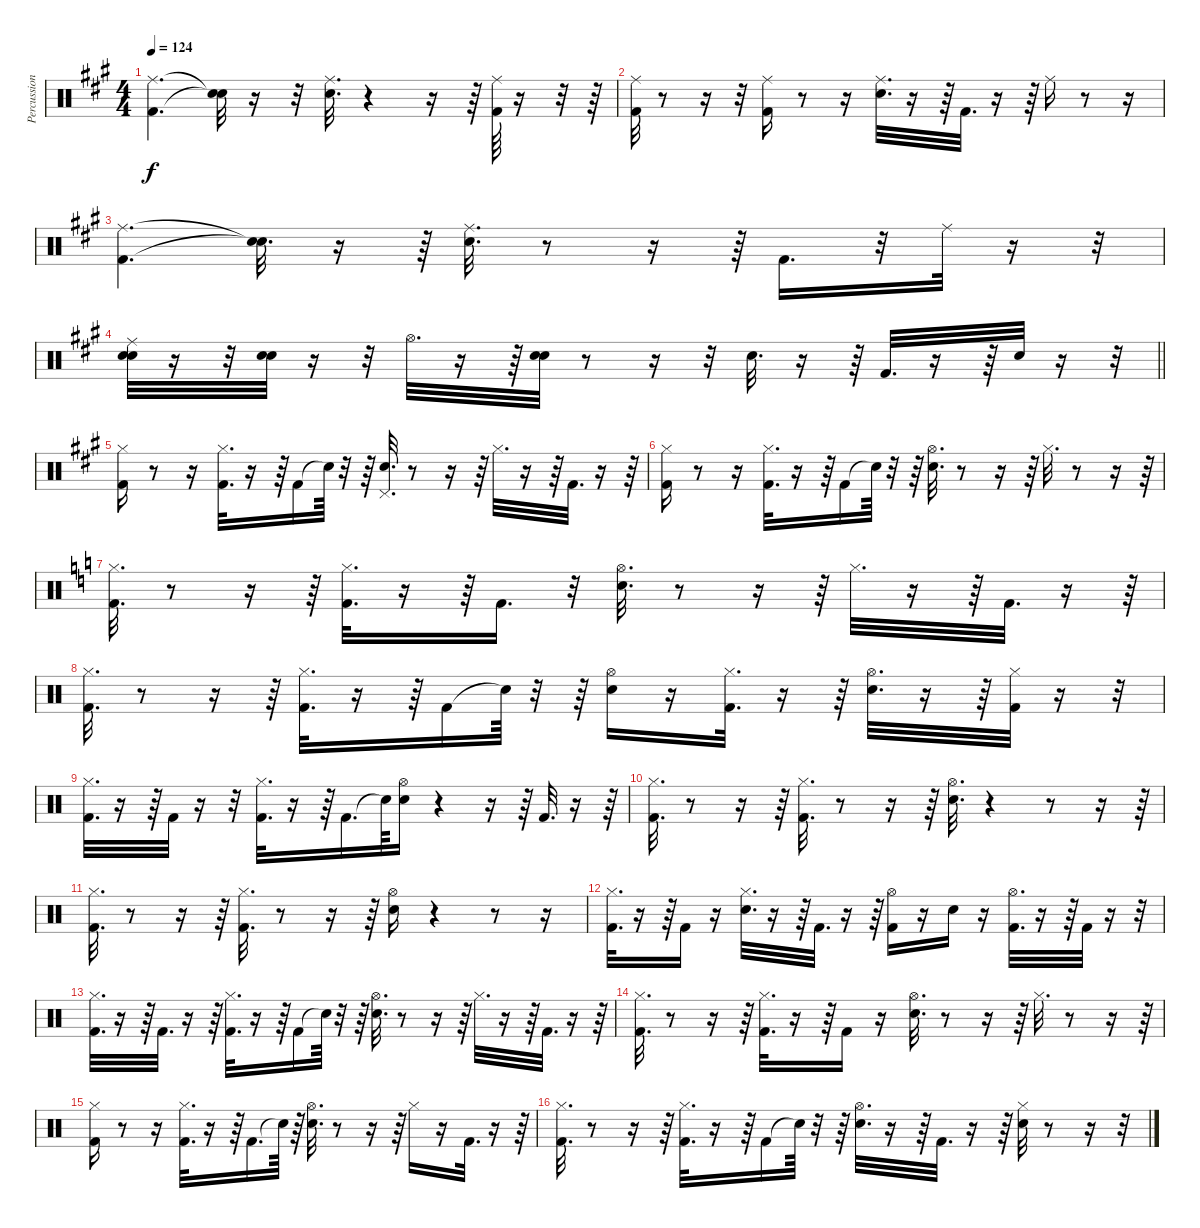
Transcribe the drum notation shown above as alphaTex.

\track ("Percussion" "Percussion") {instrument percussion}
\staff {score}
\articulation defaults
\ts (4 4)
\tempo 124
\clef neutral
\ks f#minor
("Ride (middle)" "Kick (hit) 2").4{d dy f} ("Snare (hit)"{t} "Snare (hit)"{t}).32 r.16 r.32 ("Electric Snare (hit)" "Ride (middle)").32{d} r.4 r.16 r.64 ("Ride (middle)" "Kick (hit) 2").64 r.16 r.32 r.64 |
("Kick (hit) 2" "Ride (middle)").32 r.8 r.16 r.32 ("Kick (hit) 2" "Ride (middle)").16 r.8 r.16 ("Electric Snare (hit)" "Ride (middle)").32{d} r.16 r.64 "Kick (hit) 2".32{d} r.16 r.64 "Ride (middle)".16 r.8 r.16 |
("Ride (middle)" "Kick (hit) 2").4{d} ("Snare (hit)"{t} "Snare (hit)"{t}).32{d} r.16 r.64 ("Ride (middle)" "Electric Snare (hit)").32{d} r.8 r.16 r.64 "Kick (hit) 2".16{d} r.32 "Ride (middle)".32 r.16 r.32 |
\barLineRight lightlight
("Ride (middle)" "Snare (hit) 2" "Electric Snare (hit)").32 r.16 r.32 ("Snare (hit) 2" "Electric Snare (hit)").32 r.16 r.32 "Hi-Hat (open)".32{d} r.16 r.64 ("Snare (hit) 2" "Electric Snare (hit)").32 r.8 r.16 r.32 "Electric Snare (hit)".32{d} r.16 r.64 "Kick (hit) 2".32{d} r.16 r.64 "Electric Snare (hit)".32 r.16 r.32 |
("Kick (hit) 2" "Hi-Hat (closed)").16 r.8 r.16 ("Kick (hit) 2" "Hi-Hat (closed)").32{d} r.16 r.64 "Kick (hit) 2".16 "Snare (hit)"{t}.64 r.32 r.64 ("Snare (hit) 2" "Pedal Hi-Hat (hit)").32{d} r.8 r.16 r.64 "Hi-Hat (closed)".32{d} r.16 r.64 "Kick (hit) 2".32{d} r.16 r.64 |
("Hi-Hat (closed)" "Kick (hit) 2").16 r.8 r.16 ("Hi-Hat (closed)" "Kick (hit) 2").32{d} r.16 r.64 "Kick (hit) 2".16 "Snare (hit)"{t}.64 r.32 r.64 ("Hi-Hat (open)" "Electric Snare (hit)").32{d} r.8 r.16 r.64 "Hi-Hat (closed)".32{d} r.8 r.16 r.64 |
\ks c
("Hi-Hat (closed)" "Kick (hit) 2").32{d} r.8 r.16 r.64 ("Hi-Hat (closed)" "Kick (hit) 2").32{d} r.16 r.64 "Kick (hit) 2".16{d} r.32 ("Hi-Hat (open)" "Electric Snare (hit)").32{d} r.8 r.16 r.64 "Hi-Hat (closed)".32{d} r.16 r.64 "Kick (hit) 2".32{d} r.16 r.64 |
("Hi-Hat (closed)" "Kick (hit) 2").32{d} r.8 r.16 r.64 ("Hi-Hat (closed)" "Kick (hit) 2").32{d} r.16 r.64 "Kick (hit) 2".16 "Snare (hit)"{t}.64 r.32 r.64 ("Hi-Hat (open)" "Electric Snare (hit)").16 r.16 ("Hi-Hat (closed)" "Kick (hit) 2").32{d} r.16 r.64 ("Hi-Hat (open)" "Electric Snare (hit)").32{d} r.16 r.64 ("Hi-Hat (closed)" "Kick (hit) 2").32 r.16 r.32 |
("Hi-Hat (closed)" "Kick (hit) 2").32{d} r.16 r.64 "Kick (hit) 2".32 r.16 r.32 ("Hi-Hat (closed)" "Kick (hit) 2").32{d} r.16 r.64 "Kick (hit) 2".16{d} "Snare (hit)"{t}.64 ("Hi-Hat (open)" "Electric Snare (hit)").16 r.4 r.16 r.64 "Kick (hit) 2".32{d} r.16 r.64 |
("Hi-Hat (closed)" "Kick (hit) 2").32{d} r.8 r.16 r.64 ("Hi-Hat (closed)" "Kick (hit) 2").32{d} r.8 r.16 r.64 ("Electric Snare (hit)" "Hi-Hat (open)").32{d} r.4 r.8 r.16 r.64 |
("Hi-Hat (closed)" "Kick (hit) 2").32{d} r.8 r.16 r.64 ("Hi-Hat (closed)" "Kick (hit) 2").32{d} r.8 r.16 r.64 ("Hi-Hat (open)" "Electric Snare (hit)").16 r.4 r.8 r.16 |
("Kick (hit) 2" "Hi-Hat (closed)").32{d} r.16 r.64 "Kick (hit) 2".16 r.16 ("Hi-Hat (closed)" "Electric Snare (hit)").32{d} r.16 r.64 "Kick (hit) 2".32{d} r.16 r.64 ("Hi-Hat (open)" "Kick (hit) 2").16 r.16 "Electric Snare (hit)".16 r.16 ("Kick (hit) 2" "Hi-Hat (open)").32{d} r.16 r.64 "Kick (hit) 2".32 r.16 r.32 |
("Kick (hit) 2" "Hi-Hat (closed)").32{d} r.16 r.64 "Kick (hit) 2".32{d} r.16 r.64 ("Kick (hit) 2" "Hi-Hat (closed)").32{d} r.16 r.64 "Kick (hit) 2".16 "Snare (hit)"{t}.64 r.32 r.64 ("Electric Snare (hit)" "Hi-Hat (open)").32{d} r.8 r.16 r.64 "Hi-Hat (closed)".32{d} r.16 r.64 "Kick (hit) 2".32{d} r.16 r.64 |
("Hi-Hat (closed)" "Kick (hit) 2").32{d} r.8 r.16 r.64 ("Hi-Hat (closed)" "Kick (hit) 2").32{d} r.16 r.64 "Kick (hit) 2".16 r.16 ("Electric Snare (hit)" "Hi-Hat (open)").32{d} r.8 r.16 r.64 "Hi-Hat (closed)".32{d} r.8 r.16 r.64 |
("Hi-Hat (closed)" "Kick (hit) 2").16 r.8 r.16 ("Hi-Hat (closed)" "Kick (hit) 2").32{d} r.16 r.64 "Kick (hit) 2".16{d} "Snare (hit)"{t}.64 r.64 ("Hi-Hat (open)" "Electric Snare (hit)").32{d} r.8 r.16 r.64 "Hi-Hat (closed)".16 r.16 "Kick (hit) 2".32{d} r.16 r.64 |
("Hi-Hat (closed)" "Kick (hit) 2").32{d} r.8 r.16 r.64 ("Hi-Hat (closed)" "Kick (hit) 2").32{d} r.16 r.64 "Kick (hit) 2".16 "Snare (hit)"{t}.64 r.32 r.64 ("Electric Snare (hit)" "Hi-Hat (open)").32{d} r.16 r.64 "Kick (hit) 2".32{d} r.16 r.64 ("Electric Snare (hit)" "Hi-Hat (closed)").32 r.8 r.16 r.32
